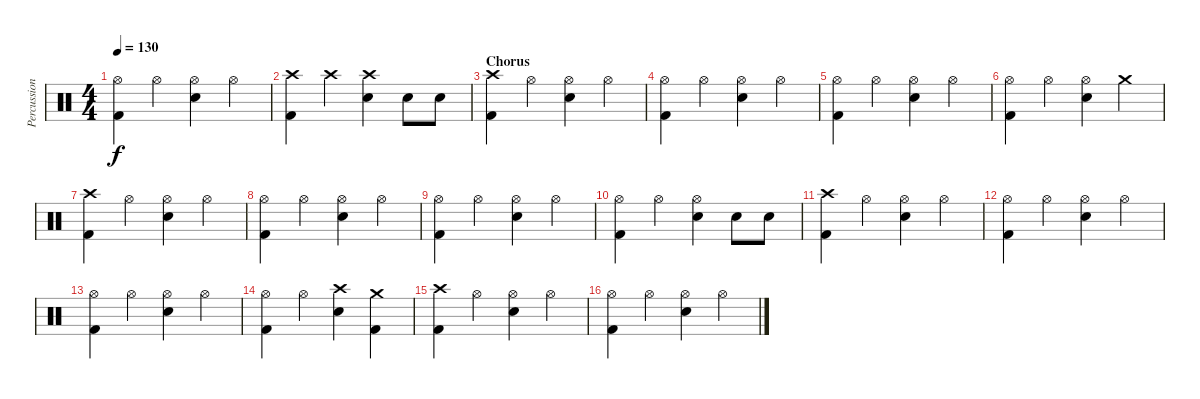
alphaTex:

\track ("Percussion" "Percussion") {instrument percussion}
\staff {score}
\articulation defaults
\ts (4 4)
\tempo 130
\clef neutral
\ks c
("Hi-Hat (open)" "Kick (hit) 2").4{dy f} "Hi-Hat (open)".4 ("Hi-Hat (open)" "Snare (hit) 2").4 "Hi-Hat (open)".4 |
("Crash high (hit)" "Kick (hit) 2").4 "Crash high (hit)".4 ("Crash high (hit)" "Snare (hit) 2").4 "Snare (hit) 2".8 "Snare (hit) 2".8 |
\section ("" "Chorus")
("Crash high (hit)" "Kick (hit) 2").4 "Hi-Hat (open)".4 ("Hi-Hat (open)" "Snare (hit) 2").4 "Hi-Hat (open)".4 |
("Hi-Hat (open)" "Kick (hit) 2").4 "Hi-Hat (open)".4 ("Hi-Hat (open)" "Snare (hit) 2").4 "Hi-Hat (open)".4 |
("Hi-Hat (open)" "Kick (hit) 2").4 "Hi-Hat (open)".4 ("Hi-Hat (open)" "Snare (hit) 2").4 "Hi-Hat (open)".4 |
("Hi-Hat (open)" "Kick (hit) 2").4 "Hi-Hat (open)".4 ("Hi-Hat (open)" "Snare (hit) 2").4 "Crash medium (hit)".4 |
("Crash high (hit)" "Kick (hit) 2").4 "Hi-Hat (open)".4 ("Hi-Hat (open)" "Snare (hit) 2").4 "Hi-Hat (open)".4 |
("Hi-Hat (open)" "Kick (hit) 2").4 "Hi-Hat (open)".4 ("Hi-Hat (open)" "Snare (hit) 2").4 "Hi-Hat (open)".4 |
("Hi-Hat (open)" "Kick (hit) 2").4 "Hi-Hat (open)".4 ("Hi-Hat (open)" "Snare (hit) 2").4 "Hi-Hat (open)".4 |
("Hi-Hat (open)" "Kick (hit) 2").4 "Hi-Hat (open)".4 ("Hi-Hat (open)" "Snare (hit) 2").4 "Snare (hit) 2".8 "Snare (hit) 2".8 |
("Crash high (hit)" "Kick (hit) 2").4 "Hi-Hat (open)".4 ("Hi-Hat (open)" "Snare (hit) 2").4 "Hi-Hat (open)".4 |
("Hi-Hat (open)" "Kick (hit) 2").4 "Hi-Hat (open)".4 ("Hi-Hat (open)" "Snare (hit) 2").4 "Hi-Hat (open)".4 |
("Hi-Hat (open)" "Kick (hit) 2").4 "Hi-Hat (open)".4 ("Hi-Hat (open)" "Snare (hit) 2").4 "Hi-Hat (open)".4 |
("Hi-Hat (open)" "Kick (hit) 2").4 "Hi-Hat (open)".4 ("Crash high (hit)" "Snare (hit) 2").4 ("Crash medium (hit)" "Kick (hit) 2").4 |
("Crash high (hit)" "Kick (hit) 2").4 "Hi-Hat (open)".4 ("Hi-Hat (open)" "Snare (hit) 2").4 "Hi-Hat (open)".4 |
("Hi-Hat (open)" "Kick (hit) 2").4 "Hi-Hat (open)".4 ("Hi-Hat (open)" "Snare (hit) 2").4 "Hi-Hat (open)".4
